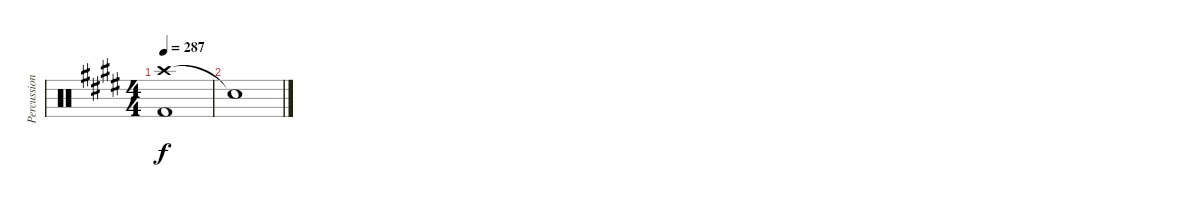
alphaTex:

\track ("Percussion" "Percussion") {instrument percussion}
\staff {score}
\articulation defaults
\ts (4 4)
\tempo 287
\clef neutral
\ks c#minor
("Crash high (hit)" "Kick (hit) 2").1{dy f} |
"Snare (hit)"{t}.1
